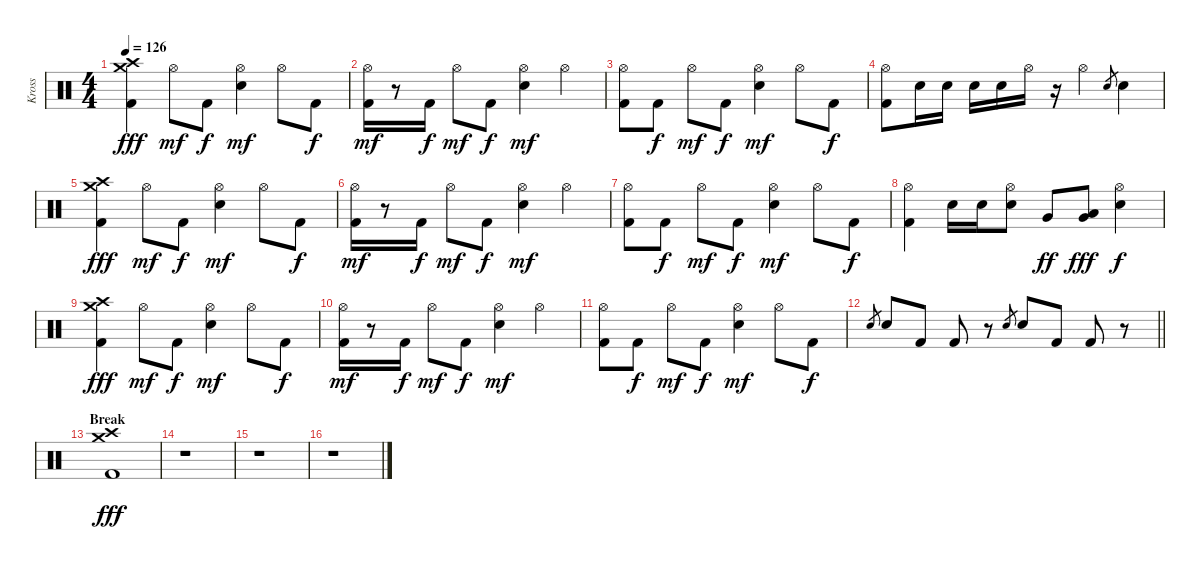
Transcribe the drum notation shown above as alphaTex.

\track ("Kross" "Kross") {instrument percussion}
\staff {score}
\articulation defaults
\ts (4 4)
\tempo 126
\clef neutral
\ks c
("Crash high (hit)" "Crash medium (hit)" "Kick (hit) 2").4{dy fff} "Hi-Hat (open)".8{dy mf} "Kick (hit) 2".8{dy f} ("Hi-Hat (open)" "Electric Snare (hit)").4{dy mf} "Hi-Hat (open)".8 "Kick (hit) 2".8{dy f} |
("Hi-Hat (open)" "Kick (hit) 2").16{dy mf} r.8 "Kick (hit) 2".16{dy f} "Hi-Hat (open)".8{dy mf} "Kick (hit) 2".8{dy f} ("Hi-Hat (open)" "Electric Snare (hit)").4{dy mf} "Hi-Hat (open)".4 |
("Hi-Hat (open)" "Kick (hit) 2").8 "Kick (hit) 2".8{dy f} "Hi-Hat (open)".8{dy mf} "Kick (hit) 2".8{dy f} ("Hi-Hat (open)" "Electric Snare (hit)").4{dy mf} "Hi-Hat (open)".8 "Kick (hit) 2".8{dy f} |
("Hi-Hat (open)" "Kick (hit) 2").8 "Electric Snare (hit)".16 "Electric Snare (hit)".16 "Electric Snare (hit)".16 "Electric Snare (hit)".16 "Hi-Hat (open)".16 r.16 "Hi-Hat (open)".4 "Electric Snare (hit)".8{gr} "Electric Snare (hit)".4 |
("Crash high (hit)" "Crash medium (hit)" "Kick (hit) 2").4{dy fff} "Hi-Hat (open)".8{dy mf} "Kick (hit) 2".8{dy f} ("Hi-Hat (open)" "Electric Snare (hit)").4{dy mf} "Hi-Hat (open)".8 "Kick (hit) 2".8{dy f} |
("Hi-Hat (open)" "Kick (hit) 2").16{dy mf} r.8 "Kick (hit) 2".16{dy f} "Hi-Hat (open)".8{dy mf} "Kick (hit) 2".8{dy f} ("Hi-Hat (open)" "Electric Snare (hit)").4{dy mf} "Hi-Hat (open)".4 |
("Hi-Hat (open)" "Kick (hit) 2").8 "Kick (hit) 2".8{dy f} "Hi-Hat (open)".8{dy mf} "Kick (hit) 2".8{dy f} ("Hi-Hat (open)" "Electric Snare (hit)").4{dy mf} "Hi-Hat (open)".8 "Kick (hit) 2".8{dy f} |
("Hi-Hat (open)" "Kick (hit) 2").4 "Electric Snare (hit)".16 "Electric Snare (hit)".16 ("Hi-Hat (open)" "Electric Snare (hit)").8 "Very Low Tom (hit)".8{dy ff} ("Low Tom (hit)" "Very Low Tom (hit)").8{dy fff} ("Hi-Hat (open)" "Electric Snare (hit)").4{dy f} |
("Crash high (hit)" "Crash medium (hit)" "Kick (hit) 2").4{dy fff} "Hi-Hat (open)".8{dy mf} "Kick (hit) 2".8{dy f} ("Hi-Hat (open)" "Electric Snare (hit)").4{dy mf} "Hi-Hat (open)".8 "Kick (hit) 2".8{dy f} |
("Hi-Hat (open)" "Kick (hit) 2").16{dy mf} r.8 "Kick (hit) 2".16{dy f} "Hi-Hat (open)".8{dy mf} "Kick (hit) 2".8{dy f} ("Hi-Hat (open)" "Electric Snare (hit)").4{dy mf} "Hi-Hat (open)".4 |
("Hi-Hat (open)" "Kick (hit) 2").8 "Kick (hit) 2".8{dy f} "Hi-Hat (open)".8{dy mf} "Kick (hit) 2".8{dy f} ("Hi-Hat (open)" "Electric Snare (hit)").4{dy mf} "Hi-Hat (open)".8 "Kick (hit) 2".8{dy f} |
\barLineRight lightlight "Electric Snare (hit)".8{gr} "Electric Snare (hit)".8 "Kick (hit) 2".8 "Kick (hit) 2".8
r.8 "Electric Snare (hit)".8{gr} "Electric Snare (hit)".8 "Kick (hit) 2".8 "Kick (hit) 2".8 r.8 |
\section ("" "Break")
("Crash high (hit)" "Crash medium (hit)" "Kick (hit) 2").1{dy fff} |
r.1 |
r.1 |
r.1
